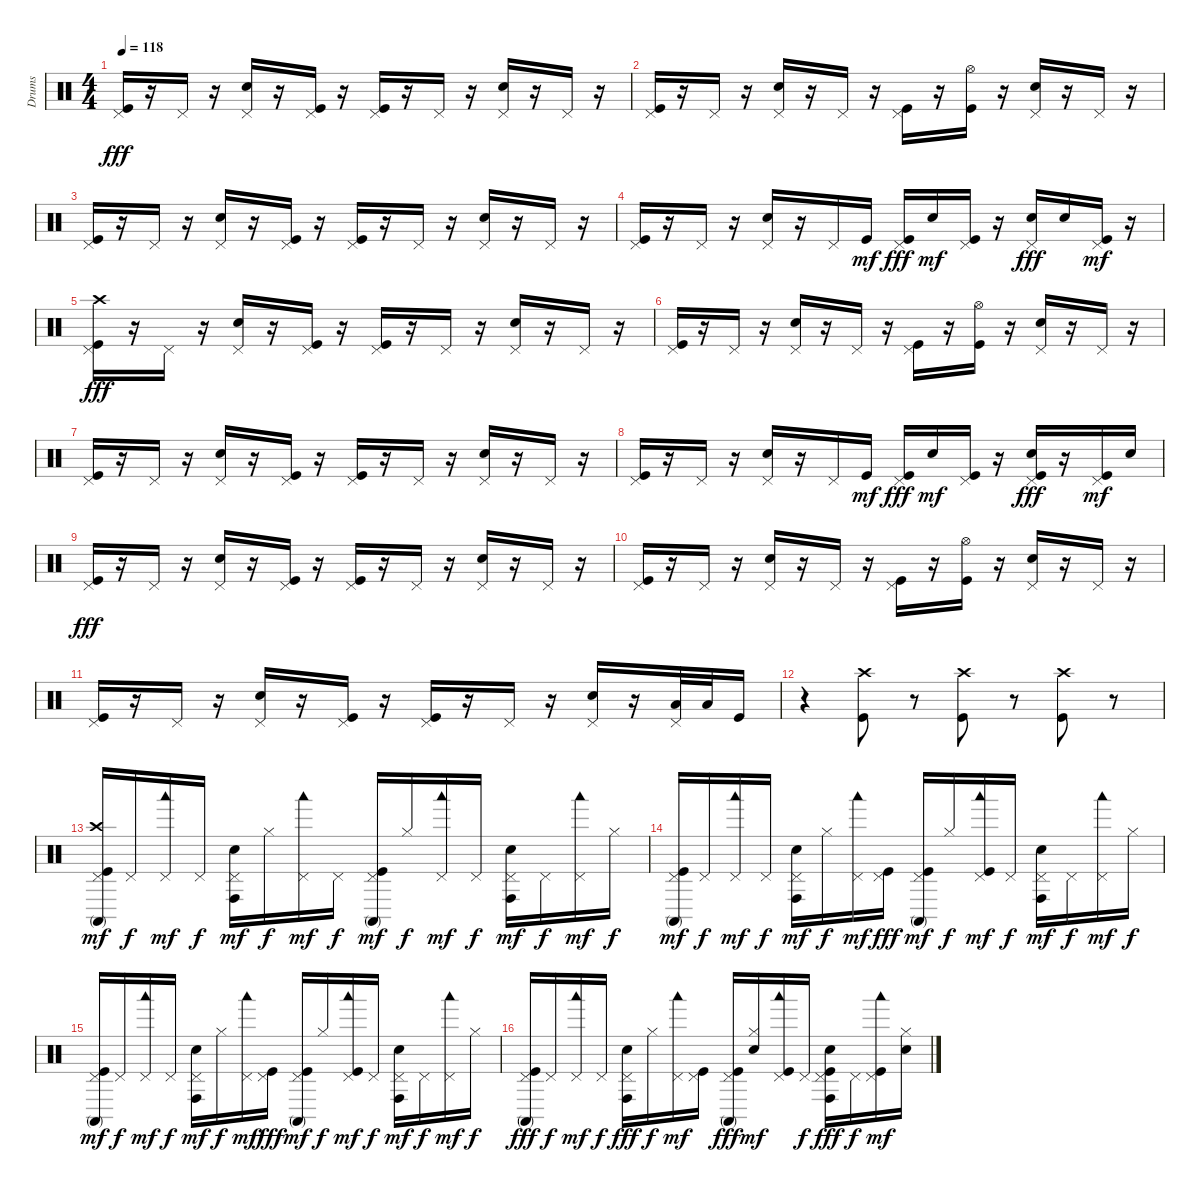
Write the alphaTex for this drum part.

\track ("Drums" "Drums") {instrument percussion}
\staff {score}
\articulation defaults
\ts (4 4)
\tempo 118
\clef neutral
\ks c
("Kick (hit)" "Pedal Hi-Hat (hit)").16{dy fff} r.16 "Pedal Hi-Hat (hit)".16 r.16 ("Pedal Hi-Hat (hit)" "Electric Snare (hit)").16 r.16 ("Pedal Hi-Hat (hit)" "Kick (hit)").16 r.16 ("Pedal Hi-Hat (hit)" "Kick (hit)").16 r.16 "Pedal Hi-Hat (hit)".16 r.16 ("Pedal Hi-Hat (hit)" "Electric Snare (hit)").16 r.16 "Pedal Hi-Hat (hit)".16 r.16 |
("Pedal Hi-Hat (hit)" "Kick (hit)").16 r.16 "Pedal Hi-Hat (hit)".16 r.16 ("Pedal Hi-Hat (hit)" "Electric Snare (hit)").16 r.16 "Pedal Hi-Hat (hit)".16 r.16 ("Pedal Hi-Hat (hit)" "Kick (hit)").16 r.16 ("Kick (hit)" "Hi-Hat (open)").16 r.16 ("Pedal Hi-Hat (hit)" "Electric Snare (hit)").16 r.16 "Pedal Hi-Hat (hit)".16 r.16 |
("Kick (hit)" "Pedal Hi-Hat (hit)").16 r.16 "Pedal Hi-Hat (hit)".16 r.16 ("Pedal Hi-Hat (hit)" "Electric Snare (hit)").16 r.16 ("Pedal Hi-Hat (hit)" "Kick (hit)").16 r.16 ("Pedal Hi-Hat (hit)" "Kick (hit)").16 r.16 "Pedal Hi-Hat (hit)".16 r.16 ("Pedal Hi-Hat (hit)" "Electric Snare (hit)").16 r.16 "Pedal Hi-Hat (hit)".16 r.16 |
("Pedal Hi-Hat (hit)" "Kick (hit)").16 r.16 "Pedal Hi-Hat (hit)".16 r.16 ("Pedal Hi-Hat (hit)" "Electric Snare (hit)").16 r.16 "Pedal Hi-Hat (hit)".16 "Kick (hit)".16{dy mf} ("Pedal Hi-Hat (hit)" "Kick (hit)").16{dy fff} "Electric Snare (hit)".16{dy mf} ("Pedal Hi-Hat (hit)" "Kick (hit)").16 r.16 ("Pedal Hi-Hat (hit)" "Electric Snare (hit)").16{dy fff} "Electric Snare (hit)".16 ("Pedal Hi-Hat (hit)" "Kick (hit)").16{dy mf} r.16 |
("Crash high (hit)" "Kick (hit)" "Pedal Hi-Hat (hit)").16{dy fff} r.16 "Pedal Hi-Hat (hit)".16 r.16 ("Pedal Hi-Hat (hit)" "Electric Snare (hit)").16 r.16 ("Pedal Hi-Hat (hit)" "Kick (hit)").16 r.16 ("Pedal Hi-Hat (hit)" "Kick (hit)").16 r.16 "Pedal Hi-Hat (hit)".16 r.16 ("Pedal Hi-Hat (hit)" "Electric Snare (hit)").16 r.16 "Pedal Hi-Hat (hit)".16 r.16 |
("Pedal Hi-Hat (hit)" "Kick (hit)").16 r.16 "Pedal Hi-Hat (hit)".16 r.16 ("Pedal Hi-Hat (hit)" "Electric Snare (hit)").16 r.16 "Pedal Hi-Hat (hit)".16 r.16 ("Pedal Hi-Hat (hit)" "Kick (hit)").16 r.16 ("Kick (hit)" "Hi-Hat (open)").16 r.16 ("Pedal Hi-Hat (hit)" "Electric Snare (hit)").16 r.16 "Pedal Hi-Hat (hit)".16 r.16 |
("Kick (hit)" "Pedal Hi-Hat (hit)").16 r.16 "Pedal Hi-Hat (hit)".16 r.16 ("Pedal Hi-Hat (hit)" "Electric Snare (hit)").16 r.16 ("Pedal Hi-Hat (hit)" "Kick (hit)").16 r.16 ("Pedal Hi-Hat (hit)" "Kick (hit)").16 r.16 "Pedal Hi-Hat (hit)".16 r.16 ("Pedal Hi-Hat (hit)" "Electric Snare (hit)").16 r.16 "Pedal Hi-Hat (hit)".16 r.16 |
("Pedal Hi-Hat (hit)" "Kick (hit)").16 r.16 "Pedal Hi-Hat (hit)".16 r.16 ("Pedal Hi-Hat (hit)" "Electric Snare (hit)").16 r.16 "Pedal Hi-Hat (hit)".16 "Kick (hit)".16{dy mf} ("Pedal Hi-Hat (hit)" "Kick (hit)").16{dy fff} "Electric Snare (hit)".16{dy mf} ("Pedal Hi-Hat (hit)" "Kick (hit)").16 r.16 ("Pedal Hi-Hat (hit)" "Kick (hit)" "Electric Snare (hit)").16{dy fff} r.16 ("Pedal Hi-Hat (hit)" "Kick (hit)").16{dy mf} "Electric Snare (hit)".16 |
("Kick (hit)" "Pedal Hi-Hat (hit)").16{dy fff} r.16 "Pedal Hi-Hat (hit)".16 r.16 ("Pedal Hi-Hat (hit)" "Electric Snare (hit)").16 r.16 ("Pedal Hi-Hat (hit)" "Kick (hit)").16 r.16 ("Pedal Hi-Hat (hit)" "Kick (hit)").16 r.16 "Pedal Hi-Hat (hit)".16 r.16 ("Pedal Hi-Hat (hit)" "Electric Snare (hit)").16 r.16 "Pedal Hi-Hat (hit)".16 r.16 |
("Pedal Hi-Hat (hit)" "Kick (hit)").16 r.16 "Pedal Hi-Hat (hit)".16 r.16 ("Pedal Hi-Hat (hit)" "Electric Snare (hit)").16 r.16 "Pedal Hi-Hat (hit)".16 r.16 ("Pedal Hi-Hat (hit)" "Kick (hit)").16 r.16 ("Kick (hit)" "Hi-Hat (open)").16 r.16 ("Pedal Hi-Hat (hit)" "Electric Snare (hit)").16 r.16 "Pedal Hi-Hat (hit)".16 r.16 |
("Kick (hit)" "Pedal Hi-Hat (hit)").16 r.16 "Pedal Hi-Hat (hit)".16 r.16 ("Pedal Hi-Hat (hit)" "Electric Snare (hit)").16 r.16 ("Pedal Hi-Hat (hit)" "Kick (hit)").16 r.16 ("Pedal Hi-Hat (hit)" "Kick (hit)").16 r.16 "Pedal Hi-Hat (hit)".16 r.16 ("Pedal Hi-Hat (hit)" "Electric Snare (hit)").16 r.16 ("Pedal Hi-Hat (hit)" "Low Floor Tom (hit)").32 "Low Floor Tom (hit)".32 "Kick (hit)".16 |
r.4 ("Kick (hit)" "Crash high (hit)").8 r.8 ("Kick (hit)" "Crash high (hit)").8 r.8 ("Kick (hit)" "Crash high (hit)").8 r.8 |
("Conga high (mute)" "Kick (hit)" "Crash high (hit)" "Pedal Hi-Hat (hit)").16{dy mf} "Pedal Hi-Hat (hit)".16{dy f} ("Woodblock low (hit)" "Pedal Hi-Hat (hit)").16{dy mf} "Pedal Hi-Hat (hit)".16{dy f} ("Electric Snare (hit)" "Conga high (hit)" "Pedal Hi-Hat (hit)").16{dy mf} "Hi-Hat (closed)".16{dy f} ("Woodblock low (hit)" "Pedal Hi-Hat (hit)").16{dy mf} "Pedal Hi-Hat (hit)".16{dy f} ("Kick (hit)" "Conga high (mute)" "Pedal Hi-Hat (hit)").16{dy mf} "Hi-Hat (closed)".16{dy f} ("Woodblock low (hit)" "Pedal Hi-Hat (hit)").16{dy mf} "Pedal Hi-Hat (hit)".16{dy f} ("Electric Snare (hit)" "Conga high (hit)" "Pedal Hi-Hat (hit)").16{dy mf} "Pedal Hi-Hat (hit)".16{dy f} ("Woodblock low (hit)" "Pedal Hi-Hat (hit)").16{dy mf} "Hi-Hat (closed)".16{dy f} |
("Kick (hit)" "Conga high (mute)" "Pedal Hi-Hat (hit)").16{dy mf} "Pedal Hi-Hat (hit)".16{dy f} ("Woodblock low (hit)" "Pedal Hi-Hat (hit)").16{dy mf} "Pedal Hi-Hat (hit)".16{dy f} ("Electric Snare (hit)" "Conga high (hit)" "Pedal Hi-Hat (hit)").16{dy mf} "Hi-Hat (closed)".16{dy f} ("Woodblock low (hit)" "Pedal Hi-Hat (hit)").16{dy mf} ("Kick (hit)" "Pedal Hi-Hat (hit)").16{dy fff} ("Kick (hit)" "Conga high (mute)" "Pedal Hi-Hat (hit)").16{dy mf} "Hi-Hat (closed)".16{dy f} ("Kick (hit)" "Woodblock low (hit)" "Pedal Hi-Hat (hit)").16{dy mf} "Pedal Hi-Hat (hit)".16{dy f} ("Electric Snare (hit)" "Conga high (hit)" "Pedal Hi-Hat (hit)").16{dy mf} "Pedal Hi-Hat (hit)".16{dy f} ("Woodblock low (hit)" "Pedal Hi-Hat (hit)").16{dy mf} "Hi-Hat (closed)".16{dy f} |
("Kick (hit)" "Conga high (mute)" "Pedal Hi-Hat (hit)").16{dy mf} "Pedal Hi-Hat (hit)".16{dy f} ("Woodblock low (hit)" "Pedal Hi-Hat (hit)").16{dy mf} "Pedal Hi-Hat (hit)".16{dy f} ("Electric Snare (hit)" "Conga high (hit)" "Pedal Hi-Hat (hit)").16{dy mf} "Hi-Hat (closed)".16{dy f} ("Woodblock low (hit)" "Pedal Hi-Hat (hit)").16{dy mf} ("Kick (hit)" "Pedal Hi-Hat (hit)").16{dy fff} ("Kick (hit)" "Conga high (mute)" "Pedal Hi-Hat (hit)").16{dy mf} "Hi-Hat (closed)".16{dy f} ("Kick (hit)" "Woodblock low (hit)" "Pedal Hi-Hat (hit)").16{dy mf} "Pedal Hi-Hat (hit)".16{dy f} ("Electric Snare (hit)" "Conga high (hit)" "Pedal Hi-Hat (hit)").16{dy mf} "Pedal Hi-Hat (hit)".16{dy f} ("Woodblock low (hit)" "Pedal Hi-Hat (hit)").16{dy mf} "Hi-Hat (closed)".16{dy f} |
("Conga high (mute)" "Pedal Hi-Hat (hit)" "Kick (hit)").16{dy fff} "Pedal Hi-Hat (hit)".16{dy f} ("Woodblock low (hit)" "Pedal Hi-Hat (hit)").16{dy mf} "Pedal Hi-Hat (hit)".16{dy f} ("Conga high (hit)" "Pedal Hi-Hat (hit)" "Electric Snare (hit)").16{dy fff} "Hi-Hat (closed)".16{dy f} ("Woodblock low (hit)" "Pedal Hi-Hat (hit)").16{dy mf} ("Pedal Hi-Hat (hit)" "Kick (hit)").16 ("Conga high (mute)" "Pedal Hi-Hat (hit)" "Kick (hit)").16{dy fff} ("Hi-Hat (closed)" "Electric Snare (hit)").16{dy mf} ("Woodblock low (hit)" "Pedal Hi-Hat (hit)" "Kick (hit)").16 "Pedal Hi-Hat (hit)".16{dy f} ("Conga high (hit)" "Pedal Hi-Hat (hit)" "Kick (hit)" "Electric Snare (hit)").16{dy fff} "Pedal Hi-Hat (hit)".16{dy f} ("Woodblock low (hit)" "Pedal Hi-Hat (hit)" "Kick (hit)").16{dy mf} ("Hi-Hat (closed)" "Electric Snare (hit)").16
